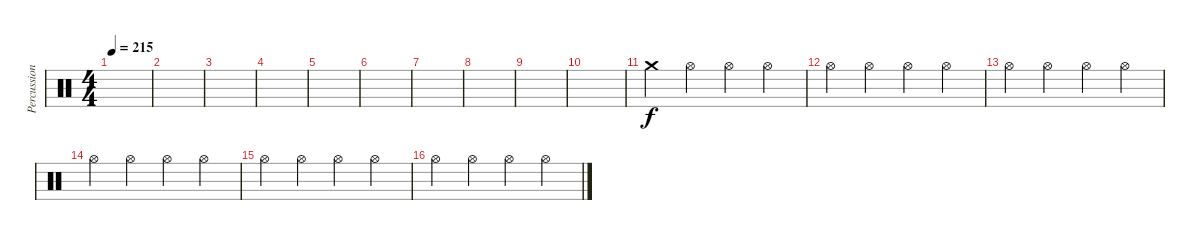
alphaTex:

\track ("Percussion" "Percussion") {instrument percussion}
\staff {score}
\articulation defaults
\ts (4 4)
\tempo 215
\clef neutral
\ks c
|
|
|
|
|
|
|
|
|
|
"Crash medium (hit)".4 "Hi-Hat (open)".4 "Hi-Hat (open)".4 "Hi-Hat (open)".4 |
"Hi-Hat (open)".4 "Hi-Hat (open)".4 "Hi-Hat (open)".4 "Hi-Hat (open)".4 |
"Hi-Hat (open)".4 "Hi-Hat (open)".4 "Hi-Hat (open)".4 "Hi-Hat (open)".4 |
"Hi-Hat (open)".4 "Hi-Hat (open)".4 "Hi-Hat (open)".4 "Hi-Hat (open)".4 |
"Hi-Hat (open)".4 "Hi-Hat (open)".4 "Hi-Hat (open)".4 "Hi-Hat (open)".4 |
"Hi-Hat (open)".4 "Hi-Hat (open)".4 "Hi-Hat (open)".4 "Hi-Hat (open)".4
